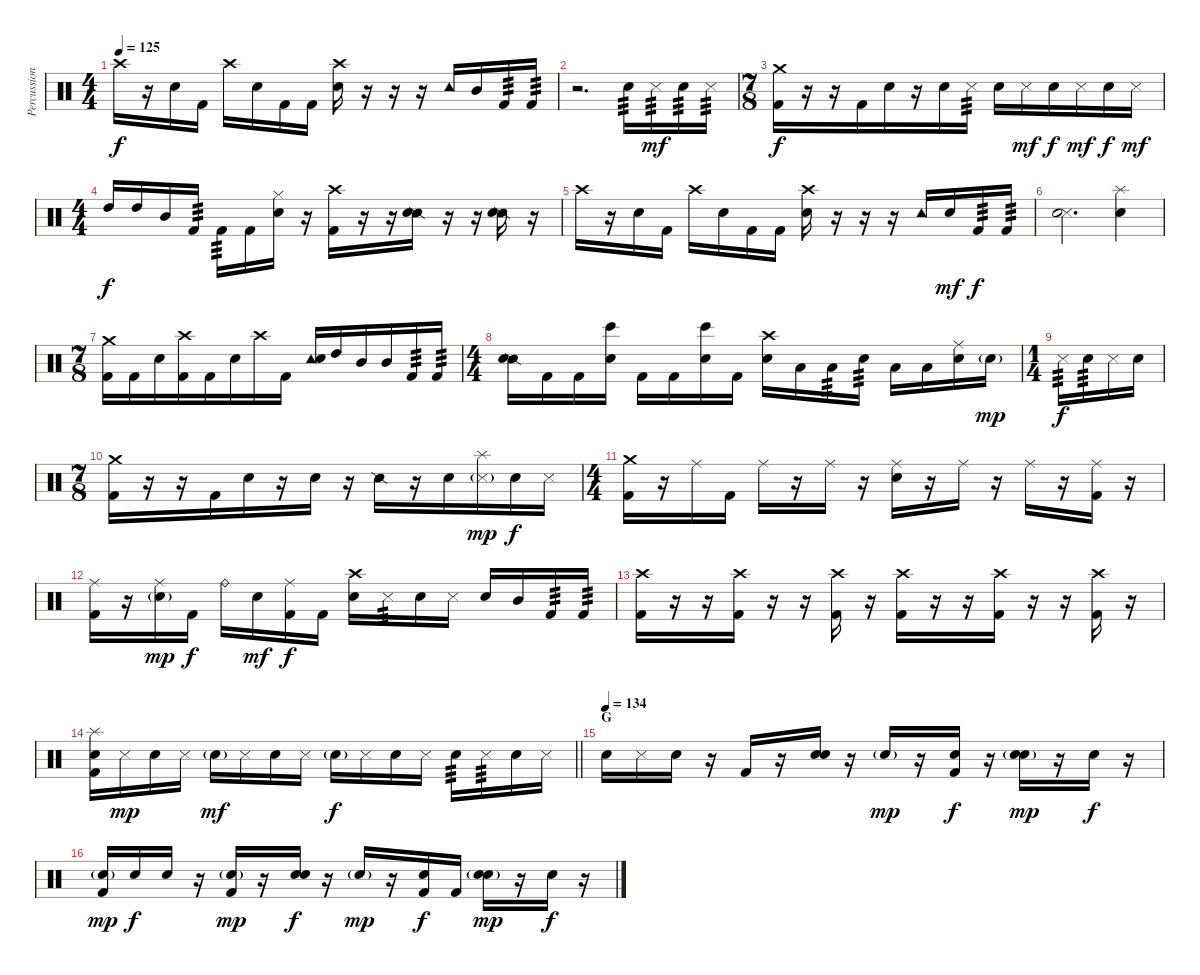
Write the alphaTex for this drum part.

\track ("Percussion" "Percussion") {instrument percussion}
\staff {score}
\articulation defaults
\ts (4 4)
\tempo 125
\clef neutral
\ks c "Crash high (hit)".16{dy f}
r.16 "Snare (hit) 2".16 "Kick (hit) 2".16 "Crash high (hit)".16 "Snare (hit) 2".16 "Kick (hit) 2".16 "Kick (hit) 2".16 ("Crash high (hit)" "Snare (hit) 2").16 r.16 r.16 r.16 "Tambourine (hit)".16 "Mid Tom (hit)".16 "Kick (hit) 2".16{tp 3} "Kick (hit) 2".16{tp 3} |
r.2{d} "Snare (hit) 2".16{tp 3} "Metronome (hit)".16{tp 3 dy mf} "Snare (hit) 2".16{tp 3} "Metronome (hit)".16{tp 3} |
\ts (7 8)
("Crash medium (hit)" "Kick (hit) 2").16{dy f} r.16 r.16 "Kick (hit) 2".16 "Snare (hit)".16 r.16 "Snare (hit) 2".16 "Metronome (hit)".16{tp 3} "Snare (hit) 2".16 "Metronome (hit)".16{dy mf} "Snare (hit) 2".16{dy f} "Metronome (hit)".16{dy mf} "Snare (hit) 2".16{dy f} "Metronome (hit)".16{dy mf} |
\ts (4 4)
"High Tom (hit)".16{dy f} "High Tom (hit)".16 "Mid Tom (hit)".16 "Kick (hit) 2".16{tp 3} "Kick (hit) 2".16{tp 3} "Kick (hit) 2".16 ("Hi-Hat (closed)" "Snare (hit) 2").16 r.16 ("Crash high (hit)" "Kick (hit) 2").16 r.16 r.16 ("Snare (side stick) 2" "Snare (hit) 2").16 r.16 r.16 ("Snare (side stick) 2" "Snare (hit) 2").16 r.16 |
"Crash high (hit)".16 r.16 "Snare (hit) 2".16 "Kick (hit) 2".16 "Crash high (hit)".16 "Snare (hit) 2".16 "Kick (hit) 2".16 "Kick (hit) 2".16 ("Crash high (hit)" "Snare (hit) 2").16 r.16 r.16 r.16 "Tambourine (hit)".16 "Snare (hit) 2".16{dy mf} "Kick (hit) 2".16{tp 3 dy f} "Kick (hit) 2".16{tp 3} |
("Metronome (hit)" "Snare (hit) 2").2{d bu 60} ("Splash (hit)" "Snare (hit) 2").4 |
\ts (7 8)
("Crash medium (hit)" "Kick (hit) 2").16 "Kick (hit) 2".16 "Snare (hit) 2".16 ("Crash high (hit)" "Kick (hit) 2").16 "Kick (hit) 2".16 "Snare (hit) 2".16 "Crash high (hit)".16 "Kick (hit) 2".16 ("Tambourine (hit)" "Snare (hit) 2").16 "High Tom (hit)".16 "Mid Tom (hit)".16 "Mid Tom (hit)".16 "Kick (hit) 2".16{tp 3} "Kick (hit) 2".16{tp 3} |
\ts (4 4)
("Snare (side stick) 2" "Snare (hit) 2").16 "Kick (hit) 2".16 "Kick (hit) 2".16 ("Bongo High (hit)" "Snare (hit) 2").16 "Kick (hit) 2".16 "Kick (hit) 2".16 ("Bongo High (hit)" "Snare (hit) 2").16 "Kick (hit) 2".16 ("Crash high (hit)" "Snare (hit) 2").16 "Low Tom (hit)".16 "Low Tom (hit)".16{tp 3} "Snare (hit) 2".16{tp 3} "Low Floor Tom (hit)".16 "Low Floor Tom (hit)".16 ("Ride (middle)" "Snare (hit) 2").16 "Snare (hit) 2"{g}.16{dy mp} |
\ts (1 4)
"Metronome (hit)".16{tp 3 dy f} "Snare (hit) 2".16{tp 3} "Metronome (hit)".16 "Snare (hit) 2".16 |
\ts (7 8)
("Crash medium (hit)" "Kick (hit) 2").16 r.16 r.16 "Kick (hit) 2".16 "Snare (hit)".16 r.16 "Snare (hit) 2".16 r.16 "Snare (side stick) 2".16 r.16 "Snare (hit) 2".16 ("Splash (hit)" "Metronome (hit)"{g}).16{dy mp} "Snare (hit) 2".16{dy f} "Metronome (hit)".16 |
\ts (4 4)
("Crash medium (hit)" "Kick (hit) 2").16 r.16 "Ride (middle)".16 "Kick (hit) 2".16 "Ride (middle)".16 r.16 "Ride (middle)".16 r.16 ("Ride (middle)" "Snare (hit) 2").16 r.16 "Ride (middle)".16 r.16 "Ride (middle)".16 r.16 ("Ride (middle)" "Kick (hit) 2").16 r.16 |
("Ride (middle)" "Kick (hit) 2").16 r.16 ("Ride (middle)" "Snare (hit) 2"{g}).16{dy mp} "Kick (hit) 2".16{dy f} "Ride (bell)".16 "Snare (hit) 2".16{dy mf} ("Ride (middle)" "Kick (hit) 2").16{dy f} "Kick (hit) 2".16 ("Crash high (hit)" "Snare (hit) 2").16 "Metronome (hit)".16{tp 3} "Snare (hit) 2".16 "Metronome (hit)".16 "Snare (hit) 2".16 "Mid Tom (hit)".16 "Kick (hit) 2".16{tp 3} "Kick (hit) 2".16{tp 3} |
("Crash high (hit)" "Kick (hit) 2").16 r.16 r.16 ("Crash high (hit)" "Kick (hit) 2").16 r.16 r.16 ("Crash high (hit)" "Kick (hit) 2").16 r.16 ("Crash high (hit)" "Kick (hit) 2").16 r.16 r.16 ("Crash high (hit)" "Kick (hit) 2").16 r.16 r.16 ("Crash high (hit)" "Kick (hit) 2").16 r.16 |
\barLineRight lightlight
("Splash (hit)" "Snare (hit) 2" "Kick (hit) 2").16 "Metronome (hit)".16{dy mp} "Snare (hit) 2".16 "Metronome (hit)".16 "Snare (hit) 2"{g}.16{dy mf} "Metronome (hit)".16 "Snare (hit) 2".16 "Metronome (hit)".16 "Snare (hit) 2"{g}.16{dy f} "Metronome (hit)".16 "Snare (hit) 2".16 "Metronome (hit)".16 "Snare (hit) 2".16{tp 3} "Metronome (hit)".16{tp 3} "Snare (hit) 2".16 "Metronome (hit)".16 |
\section ("" "G")
\tempo (134)
"Snare (hit) 2".16 "Metronome (hit)".16 "Snare (hit)".16 r.16 "Kick (hit) 2".16 r.16 ("Snare (hit)" "Snare (hit) 2").16 r.16 "Snare (hit)"{g}.16{dy mp} r.16 ("Snare (hit)" "Kick (hit) 2").16{dy f} r.16 ("Snare (hit)"{g} "Snare (hit) 2").16{dy mp} r.16 "Snare (hit)".16{dy f} r.16 |
("Snare (hit)"{g} "Kick (hit) 2").16{dy mp} "Snare (hit) 2".16{dy f} "Snare (hit)".16 r.16 ("Snare (hit)"{g} "Kick (hit) 2").16{dy mp} r.16 ("Snare (hit)" "Snare (hit) 2").16{dy f} r.16 "Snare (hit)"{g}.16{dy mp} r.16 ("Snare (hit)" "Kick (hit) 2").16{dy f} "Kick (hit) 2".16 ("Snare (hit)"{g} "Snare (hit) 2").16{dy mp} r.16 "Snare (hit)".16{dy f} r.16
